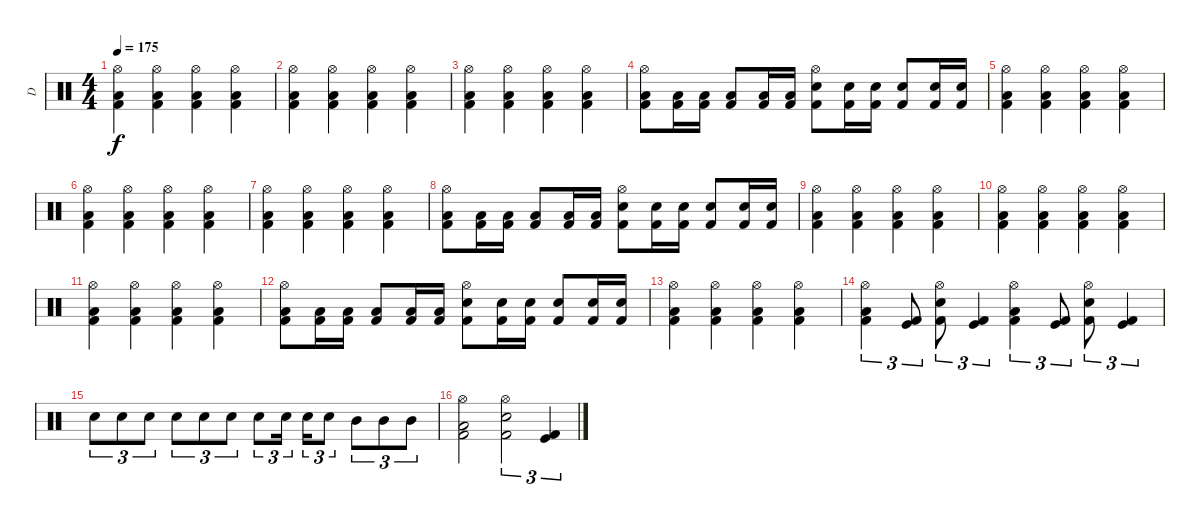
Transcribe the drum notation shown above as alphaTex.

\track ("D" "D") {instrument percussion}
\staff {score}
\articulation defaults
\ts (4 4)
\tempo 175
\clef neutral
\ks c
("Hi-Hat (open)" "Low Floor Tom (hit)" "Kick (hit) 2").4{dy f} ("Hi-Hat (open)" "Low Floor Tom (hit)" "Kick (hit) 2").4 ("Hi-Hat (open)" "Low Floor Tom (hit)" "Kick (hit) 2").4 ("Hi-Hat (open)" "Low Floor Tom (hit)" "Kick (hit) 2").4 |
("Hi-Hat (open)" "Low Floor Tom (hit)" "Kick (hit) 2").4 ("Hi-Hat (open)" "Low Floor Tom (hit)" "Kick (hit) 2").4 ("Hi-Hat (open)" "Low Floor Tom (hit)" "Kick (hit) 2").4 ("Hi-Hat (open)" "Low Floor Tom (hit)" "Kick (hit) 2").4 |
("Hi-Hat (open)" "Low Floor Tom (hit)" "Kick (hit) 2").4 ("Hi-Hat (open)" "Low Floor Tom (hit)" "Kick (hit) 2").4 ("Hi-Hat (open)" "Low Floor Tom (hit)" "Kick (hit) 2").4 ("Hi-Hat (open)" "Low Floor Tom (hit)" "Kick (hit) 2").4 |
("Hi-Hat (open)" "Low Floor Tom (hit)" "Kick (hit) 2").8 ("Low Tom (hit)" "Kick (hit) 2").16 ("Low Tom (hit)" "Kick (hit) 2").16 ("Low Tom (hit)" "Kick (hit) 2").8 ("Low Tom (hit)" "Kick (hit) 2").16 ("Low Tom (hit)" "Kick (hit) 2").16 ("Hi-Hat (open)" "Snare (hit) 2" "Kick (hit) 2").8 ("Electric Snare (hit)" "Kick (hit) 2").16 ("Electric Snare (hit)" "Kick (hit) 2").16 ("Electric Snare (hit)" "Kick (hit) 2").8 ("Electric Snare (hit)" "Kick (hit) 2").16 ("Electric Snare (hit)" "Kick (hit) 2").16 |
("Hi-Hat (open)" "Low Floor Tom (hit)" "Kick (hit) 2").4 ("Hi-Hat (open)" "Low Floor Tom (hit)" "Kick (hit) 2").4 ("Hi-Hat (open)" "Low Floor Tom (hit)" "Kick (hit) 2").4 ("Hi-Hat (open)" "Low Floor Tom (hit)" "Kick (hit) 2").4 |
("Hi-Hat (open)" "Low Floor Tom (hit)" "Kick (hit) 2").4 ("Hi-Hat (open)" "Low Floor Tom (hit)" "Kick (hit) 2").4 ("Hi-Hat (open)" "Low Floor Tom (hit)" "Kick (hit) 2").4 ("Hi-Hat (open)" "Low Floor Tom (hit)" "Kick (hit) 2").4 |
("Hi-Hat (open)" "Low Floor Tom (hit)" "Kick (hit) 2").4 ("Hi-Hat (open)" "Low Floor Tom (hit)" "Kick (hit) 2").4 ("Hi-Hat (open)" "Low Floor Tom (hit)" "Kick (hit) 2").4 ("Hi-Hat (open)" "Low Floor Tom (hit)" "Kick (hit) 2").4 |
("Hi-Hat (open)" "Low Floor Tom (hit)" "Kick (hit) 2").8 ("Low Tom (hit)" "Kick (hit) 2").16 ("Low Tom (hit)" "Kick (hit) 2").16 ("Low Tom (hit)" "Kick (hit) 2").8 ("Low Tom (hit)" "Kick (hit) 2").16 ("Low Tom (hit)" "Kick (hit) 2").16 ("Hi-Hat (open)" "Snare (hit) 2" "Kick (hit) 2").8 ("Electric Snare (hit)" "Kick (hit) 2").16 ("Electric Snare (hit)" "Kick (hit) 2").16 ("Electric Snare (hit)" "Kick (hit) 2").8 ("Electric Snare (hit)" "Kick (hit) 2").16 ("Electric Snare (hit)" "Kick (hit) 2").16 |
("Hi-Hat (open)" "Low Floor Tom (hit)" "Kick (hit) 2").4 ("Hi-Hat (open)" "Low Floor Tom (hit)" "Kick (hit) 2").4 ("Hi-Hat (open)" "Low Floor Tom (hit)" "Kick (hit) 2").4 ("Hi-Hat (open)" "Low Floor Tom (hit)" "Kick (hit) 2").4 |
("Hi-Hat (open)" "Low Floor Tom (hit)" "Kick (hit) 2").4 ("Hi-Hat (open)" "Low Floor Tom (hit)" "Kick (hit) 2").4 ("Hi-Hat (open)" "Low Floor Tom (hit)" "Kick (hit) 2").4 ("Hi-Hat (open)" "Low Floor Tom (hit)" "Kick (hit) 2").4 |
("Hi-Hat (open)" "Low Floor Tom (hit)" "Kick (hit) 2").4 ("Hi-Hat (open)" "Low Floor Tom (hit)" "Kick (hit) 2").4 ("Hi-Hat (open)" "Low Floor Tom (hit)" "Kick (hit) 2").4 ("Hi-Hat (open)" "Low Floor Tom (hit)" "Kick (hit) 2").4 |
("Hi-Hat (open)" "Low Floor Tom (hit)" "Kick (hit) 2").8 ("Low Tom (hit)" "Kick (hit) 2").16 ("Low Tom (hit)" "Kick (hit) 2").16 ("Low Tom (hit)" "Kick (hit) 2").8 ("Low Tom (hit)" "Kick (hit) 2").16 ("Low Tom (hit)" "Kick (hit) 2").16 ("Hi-Hat (open)" "Snare (hit) 2" "Kick (hit) 2").8 ("Electric Snare (hit)" "Kick (hit) 2").16 ("Electric Snare (hit)" "Kick (hit) 2").16 ("Electric Snare (hit)" "Kick (hit) 2").8 ("Electric Snare (hit)" "Kick (hit) 2").16 ("Electric Snare (hit)" "Kick (hit) 2").16 |
("Hi-Hat (open)" "Low Floor Tom (hit)" "Kick (hit) 2").4 ("Hi-Hat (open)" "Low Floor Tom (hit)" "Kick (hit) 2").4 ("Hi-Hat (open)" "Low Floor Tom (hit)" "Kick (hit) 2").4 ("Hi-Hat (open)" "Low Floor Tom (hit)" "Kick (hit) 2").4 |
("Hi-Hat (open)" "Low Floor Tom (hit)" "Kick (hit) 2").4{tu (3 2)} ("Kick (hit)" "Kick (hit) 2").8{tu (3 2)} ("Hi-Hat (open)" "Electric Snare (hit)" "Kick (hit) 2").8{tu (3 2)} ("Kick (hit)" "Kick (hit) 2").4{tu (3 2)} ("Hi-Hat (open)" "Low Floor Tom (hit)" "Kick (hit) 2").4{tu (3 2)} ("Kick (hit)" "Kick (hit) 2").8{tu (3 2)} ("Hi-Hat (open)" "Electric Snare (hit)" "Kick (hit) 2").8{tu (3 2)} ("Kick (hit)" "Kick (hit) 2").4{tu (3 2)} |
"Electric Snare (hit)".8{tu (3 2)} "Electric Snare (hit)".8{tu (3 2)} "Electric Snare (hit)".8{tu (3 2)} "Electric Snare (hit)".8{tu (3 2)} "Electric Snare (hit)".8{tu (3 2)} "Electric Snare (hit)".8{tu (3 2)} "Electric Snare (hit)".8{tu (3 2)} "Electric Snare (hit)".16{tu (3 2)} "Electric Snare (hit)".16{tu (3 2)} "Electric Snare (hit)".8{tu (3 2)} "Mid Tom (hit)".8{tu (3 2)} "Mid Tom (hit)".8{tu (3 2)} "Mid Tom (hit)".8{tu (3 2)} |
("Hi-Hat (open)" "Low Floor Tom (hit)" "Kick (hit) 2").2 ("Hi-Hat (open)" "Electric Snare (hit)" "Kick (hit) 2").2{tu (3 2)} ("Kick (hit)" "Kick (hit) 2").4{tu (3 2)}
